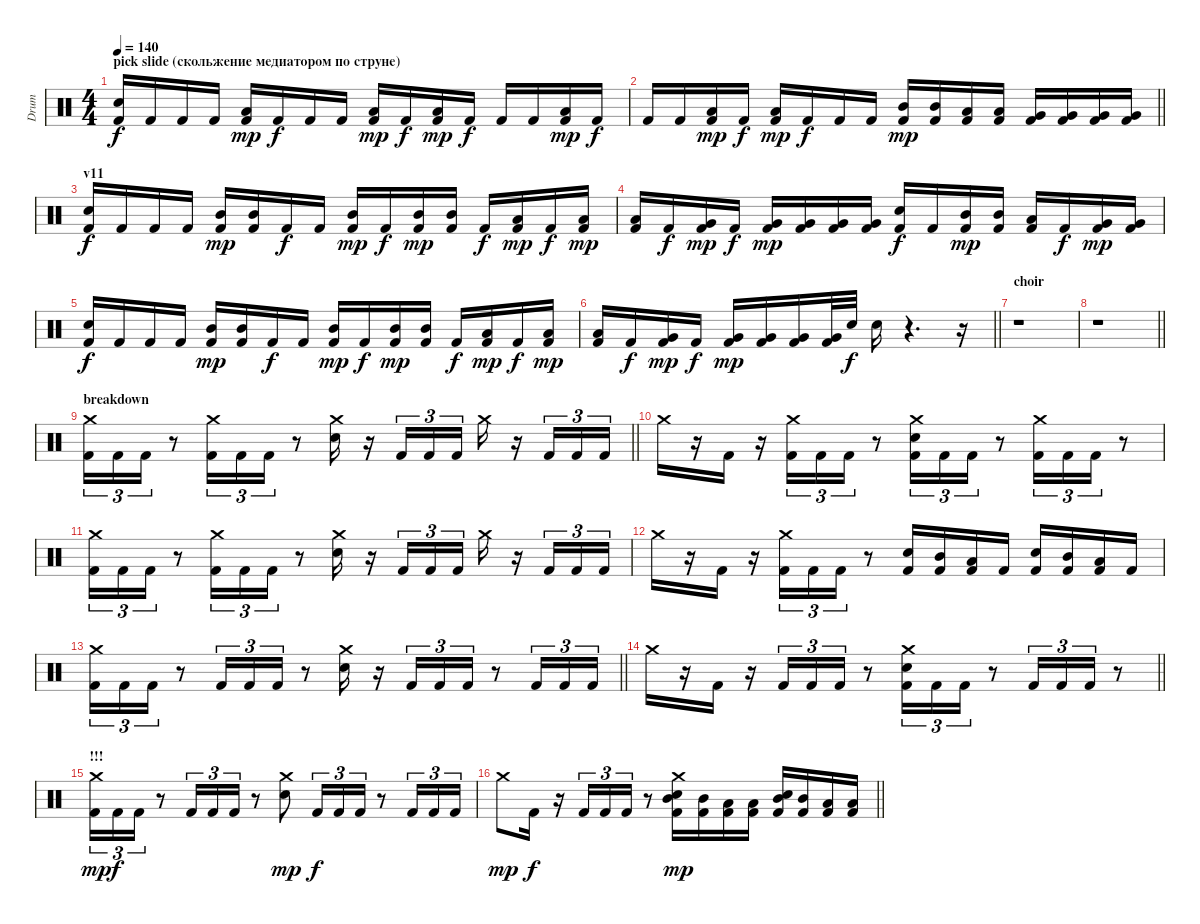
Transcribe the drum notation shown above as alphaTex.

\track ("Drum" "Drum") {instrument percussion}
\staff {score}
\articulation defaults
\ts (4 4)
\section ("" "pick slide (скольжение медиатором по струне)")
\tempo 140
\clef neutral
\ks c
("Kick (hit) 2" "Electric Snare (hit)").16{dy f} "Kick (hit) 2".16 "Kick (hit) 2".16 "Kick (hit) 2".16 ("Low Tom (hit)" "Kick (hit) 2").16{dy mp} "Kick (hit) 2".16{dy f} "Kick (hit) 2".16 "Kick (hit) 2".16 ("Low Tom (hit)" "Kick (hit) 2").16{dy mp} "Kick (hit) 2".16{dy f} ("Low Tom (hit)" "Kick (hit) 2").16{dy mp} "Kick (hit) 2".16{dy f} "Kick (hit) 2".16 "Kick (hit) 2".16 ("Low Tom (hit)" "Kick (hit) 2").16{dy mp} "Kick (hit) 2".16{dy f} |
\barLineRight lightlight "Kick (hit) 2".16 "Kick (hit) 2".16
("Low Tom (hit)" "Kick (hit) 2").16{dy mp} "Kick (hit) 2".16{dy f} ("Low Tom (hit)" "Kick (hit) 2").16{dy mp} "Kick (hit) 2".16{dy f} "Kick (hit) 2".16 "Kick (hit) 2".16 ("Mid Tom (hit)" "Kick (hit) 2").16{dy mp} ("Mid Tom (hit)" "Kick (hit) 2").16 ("Low Tom (hit)" "Kick (hit) 2").16 ("Low Tom (hit)" "Kick (hit) 2").16 ("Very Low Tom (hit)" "Kick (hit) 2").16 ("Very Low Tom (hit)" "Kick (hit) 2").16 ("Very Low Tom (hit)" "Kick (hit) 2").16 ("Very Low Tom (hit)" "Kick (hit) 2").16 |
\section ("" "v11")
("Kick (hit) 2" "Electric Snare (hit)").16{dy f} "Kick (hit) 2".16 "Kick (hit) 2".16 "Kick (hit) 2".16 ("Mid Tom (hit)" "Kick (hit) 2").16{dy mp} ("Mid Tom (hit)" "Kick (hit) 2").16 "Kick (hit) 2".16{dy f} "Kick (hit) 2".16 ("Mid Tom (hit)" "Kick (hit) 2").16{dy mp} "Kick (hit) 2".16{dy f} ("Mid Tom (hit)" "Kick (hit) 2").16{dy mp} ("Mid Tom (hit)" "Kick (hit) 2").16 "Kick (hit) 2".16{dy f} ("Kick (hit) 2" "Low Tom (hit)").16{dy mp} "Kick (hit) 2".16{dy f} ("Low Tom (hit)" "Kick (hit) 2").16{dy mp} |
("Kick (hit) 2" "Low Tom (hit)").16 "Kick (hit) 2".16{dy f} ("Kick (hit) 2" "Very Low Tom (hit)").16{dy mp} "Kick (hit) 2".16{dy f} ("Very Low Tom (hit)" "Kick (hit) 2").16{dy mp} ("Kick (hit) 2" "Very Low Tom (hit)").16 ("Very Low Tom (hit)" "Kick (hit) 2").16 ("Very Low Tom (hit)" "Kick (hit) 2").16 ("Electric Snare (hit)" "Kick (hit) 2").16{dy f} "Kick (hit) 2".16 ("Kick (hit) 2" "Mid Tom (hit)").16{dy mp} ("Kick (hit) 2" "Mid Tom (hit)").16 ("Low Tom (hit)" "Kick (hit) 2").16 "Kick (hit) 2".16{dy f} ("Very Low Tom (hit)" "Kick (hit) 2").16{dy mp} ("Very Low Tom (hit)" "Kick (hit) 2").16 |
("Kick (hit) 2" "Electric Snare (hit)").16{dy f} "Kick (hit) 2".16 "Kick (hit) 2".16 "Kick (hit) 2".16 ("Mid Tom (hit)" "Kick (hit) 2").16{dy mp} ("Mid Tom (hit)" "Kick (hit) 2").16 "Kick (hit) 2".16{dy f} "Kick (hit) 2".16 ("Mid Tom (hit)" "Kick (hit) 2").16{dy mp} "Kick (hit) 2".16{dy f} ("Mid Tom (hit)" "Kick (hit) 2").16{dy mp} ("Mid Tom (hit)" "Kick (hit) 2").16 "Kick (hit) 2".16{dy f} ("Low Tom (hit)" "Kick (hit) 2").16{dy mp} "Kick (hit) 2".16{dy f} ("Low Tom (hit)" "Kick (hit) 2").16{dy mp} |
\barLineRight lightlight
("Low Tom (hit)" "Kick (hit) 2").16 "Kick (hit) 2".16{dy f} ("Very Low Tom (hit)" "Kick (hit) 2").16{dy mp} "Kick (hit) 2".16{dy f} ("Very Low Tom (hit)" "Kick (hit) 2").16{dy mp} ("Very Low Tom (hit)" "Kick (hit) 2").16 ("Very Low Tom (hit)" "Kick (hit) 2").16 ("Very Low Tom (hit)" "Kick (hit) 2").32 "Electric Snare (hit)".32{dy f} "Electric Snare (hit)".16 r.4{d} r.16 |
\section ("" "choir")
r.1 |
\barLineRight lightlight
r.1 |
\section ("" "breakdown")
\barLineRight lightlight
("Crash medium (hit)" "Kick (hit) 2").16{tu (3 2)} "Kick (hit) 2".16{tu (3 2)} "Kick (hit) 2".16{tu (3 2)} r.8 ("Crash medium (hit)" "Kick (hit) 2").16{tu (3 2)} "Kick (hit) 2".16{tu (3 2)} "Kick (hit) 2".16{tu (3 2)} r.8 ("Crash medium (hit)" "Electric Snare (hit)").16 r.16 "Kick (hit) 2".16{tu (3 2)} "Kick (hit) 2".16{tu (3 2)} "Kick (hit) 2".16{tu (3 2)} "Crash medium (hit)".16 r.16 "Kick (hit) 2".16{tu (3 2)} "Kick (hit) 2".16{tu (3 2)} "Kick (hit) 2".16{tu (3 2)} |
"Crash medium (hit)".16 r.16 "Kick (hit) 2".16 r.16 ("Crash medium (hit)" "Kick (hit) 2").16{tu (3 2)} "Kick (hit) 2".16{tu (3 2)} "Kick (hit) 2".16{tu (3 2)} r.8 ("Crash medium (hit)" "Electric Snare (hit)" "Kick (hit) 2").16{tu (3 2)} "Kick (hit) 2".16{tu (3 2)} "Kick (hit) 2".16{tu (3 2)} r.8 ("Crash medium (hit)" "Kick (hit) 2").16{tu (3 2)} "Kick (hit) 2".16{tu (3 2)} "Kick (hit) 2".16{tu (3 2)} r.8 |
("Crash medium (hit)" "Kick (hit) 2").16{tu (3 2)} "Kick (hit) 2".16{tu (3 2)} "Kick (hit) 2".16{tu (3 2)} r.8 ("Crash medium (hit)" "Kick (hit) 2").16{tu (3 2)} "Kick (hit) 2".16{tu (3 2)} "Kick (hit) 2".16{tu (3 2)} r.8 ("Crash medium (hit)" "Electric Snare (hit)").16 r.16 "Kick (hit) 2".16{tu (3 2)} "Kick (hit) 2".16{tu (3 2)} "Kick (hit) 2".16{tu (3 2)} "Crash medium (hit)".16 r.16 "Kick (hit) 2".16{tu (3 2)} "Kick (hit) 2".16{tu (3 2)} "Kick (hit) 2".16{tu (3 2)} |
"Crash medium (hit)".16 r.16 "Kick (hit) 2".16 r.16 ("Crash medium (hit)" "Kick (hit) 2").16{tu (3 2)} "Kick (hit) 2".16{tu (3 2)} "Kick (hit) 2".16{tu (3 2)} r.8 ("Electric Snare (hit)" "Kick (hit) 2").16 ("Mid Tom (hit)" "Kick (hit) 2").16 ("Low Tom (hit)" "Kick (hit) 2").16 "Kick (hit) 2".16 ("Electric Snare (hit)" "Kick (hit) 2").16 ("Mid Tom (hit)" "Kick (hit) 2").16 ("Low Tom (hit)" "Kick (hit) 2").16 "Kick (hit) 2".16 |
\barLineRight lightlight
("Crash medium (hit)" "Kick (hit) 2").16{tu (3 2)} "Kick (hit) 2".16{tu (3 2)} "Kick (hit) 2".16{tu (3 2)} r.8 "Kick (hit) 2".16{tu (3 2)} "Kick (hit) 2".16{tu (3 2)} "Kick (hit) 2".16{tu (3 2)} r.8 ("Crash medium (hit)" "Electric Snare (hit)").16 r.16 "Kick (hit) 2".16{tu (3 2)} "Kick (hit) 2".16{tu (3 2)} "Kick (hit) 2".16{tu (3 2)} r.8 "Kick (hit) 2".16{tu (3 2)} "Kick (hit) 2".16{tu (3 2)} "Kick (hit) 2".16{tu (3 2)} |
\barLineRight lightlight "Crash medium (hit)".16
r.16 "Kick (hit) 2".16 r.16 "Kick (hit) 2".16{tu (3 2)} "Kick (hit) 2".16{tu (3 2)} "Kick (hit) 2".16{tu (3 2)} r.8 ("Crash medium (hit)" "Electric Snare (hit)" "Kick (hit) 2").16{tu (3 2)} "Kick (hit) 2".16{tu (3 2)} "Kick (hit) 2".16{tu (3 2)} r.8 "Kick (hit) 2".16{tu (3 2)} "Kick (hit) 2".16{tu (3 2)} "Kick (hit) 2".16{tu (3 2)} r.8 |
\section ("" "!!!")
("Crash medium (hit)" "Kick (hit) 2").16{tu (3 2) dy mp} "Kick (hit) 2".16{tu (3 2) dy f} "Kick (hit) 2".16{tu (3 2)} r.8 "Kick (hit) 2".16{tu (3 2)} "Kick (hit) 2".16{tu (3 2)} "Kick (hit) 2".16{tu (3 2)} r.8 ("Crash medium (hit)" "Electric Snare (hit)").8{dy mp} "Kick (hit) 2".16{tu (3 2) dy f} "Kick (hit) 2".16{tu (3 2)} "Kick (hit) 2".16{tu (3 2)} r.8 "Kick (hit) 2".16{tu (3 2)} "Kick (hit) 2".16{tu (3 2)} "Kick (hit) 2".16{tu (3 2)} |
\barLineRight lightlight "Crash medium (hit)".8{dy mp} "Kick (hit) 2".16{dy f}
r.16 "Kick (hit) 2".16{tu (3 2)} "Kick (hit) 2".16{tu (3 2)} "Kick (hit) 2".16{tu (3 2)} r.8 ("Crash medium (hit)" "Electric Snare (hit)" "Kick (hit) 2" "Mid Tom (hit)").16{dy mp} ("Mid Tom (hit)" "Kick (hit) 2").16 ("Kick (hit) 2" "Low Tom (hit)").16 ("Low Tom (hit)" "Kick (hit) 2").16 ("Electric Snare (hit)" "Kick (hit) 2" "Mid Tom (hit)").16 ("Mid Tom (hit)" "Kick (hit) 2").16 ("Kick (hit) 2" "Low Tom (hit)").16 ("Low Tom (hit)" "Kick (hit) 2").16
